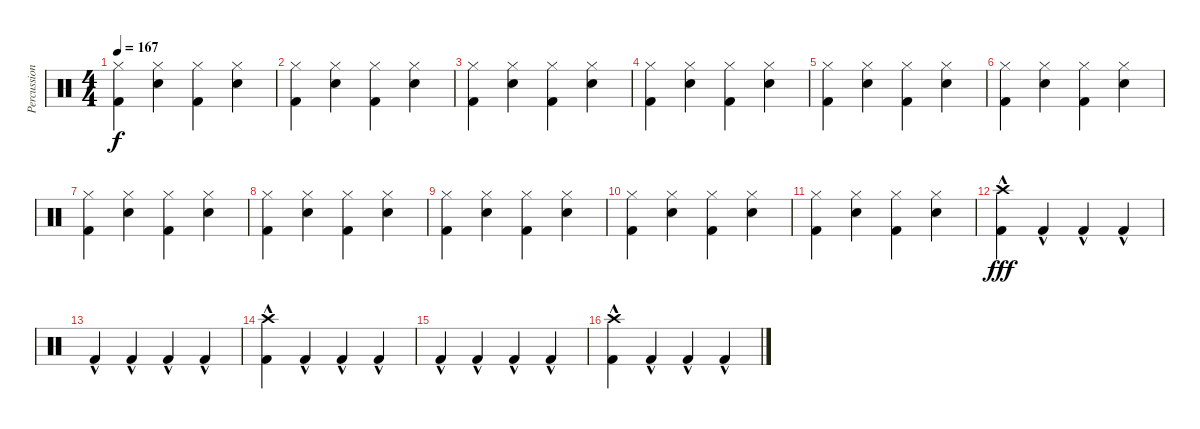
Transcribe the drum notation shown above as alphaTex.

\track ("Percussion" "Percussion") {instrument percussion}
\staff {score}
\articulation defaults
\ts (4 4)
\tempo 167
\clef neutral
\ks c
("Kick (hit) 2" "Hi-Hat (closed)").4{dy f} ("Hi-Hat (closed)" "Electric Snare (hit)").4 ("Kick (hit) 2" "Hi-Hat (closed)").4 ("Hi-Hat (closed)" "Electric Snare (hit)").4 |
("Kick (hit) 2" "Hi-Hat (closed)").4 ("Hi-Hat (closed)" "Electric Snare (hit)").4 ("Kick (hit) 2" "Hi-Hat (closed)").4 ("Hi-Hat (closed)" "Electric Snare (hit)").4 |
("Kick (hit) 2" "Hi-Hat (closed)").4 ("Hi-Hat (closed)" "Electric Snare (hit)").4 ("Kick (hit) 2" "Hi-Hat (closed)").4 ("Hi-Hat (closed)" "Electric Snare (hit)").4 |
("Kick (hit) 2" "Hi-Hat (closed)").4 ("Hi-Hat (closed)" "Electric Snare (hit)").4 ("Kick (hit) 2" "Hi-Hat (closed)").4 ("Hi-Hat (closed)" "Electric Snare (hit)").4 |
("Kick (hit) 2" "Hi-Hat (closed)").4 ("Hi-Hat (closed)" "Electric Snare (hit)").4 ("Kick (hit) 2" "Hi-Hat (closed)").4 ("Hi-Hat (closed)" "Electric Snare (hit)").4 |
("Kick (hit) 2" "Hi-Hat (closed)").4 ("Hi-Hat (closed)" "Electric Snare (hit)").4 ("Kick (hit) 2" "Hi-Hat (closed)").4 ("Hi-Hat (closed)" "Electric Snare (hit)").4 |
("Kick (hit) 2" "Hi-Hat (closed)").4 ("Hi-Hat (closed)" "Electric Snare (hit)").4 ("Kick (hit) 2" "Hi-Hat (closed)").4 ("Hi-Hat (closed)" "Electric Snare (hit)").4 |
("Kick (hit) 2" "Hi-Hat (closed)").4 ("Hi-Hat (closed)" "Electric Snare (hit)").4 ("Kick (hit) 2" "Hi-Hat (closed)").4 ("Hi-Hat (closed)" "Electric Snare (hit)").4 |
("Kick (hit) 2" "Hi-Hat (closed)").4 ("Hi-Hat (closed)" "Electric Snare (hit)").4 ("Kick (hit) 2" "Hi-Hat (closed)").4 ("Hi-Hat (closed)" "Electric Snare (hit)").4 |
("Kick (hit) 2" "Hi-Hat (closed)").4 ("Hi-Hat (closed)" "Electric Snare (hit)").4 ("Kick (hit) 2" "Hi-Hat (closed)").4 ("Hi-Hat (closed)" "Electric Snare (hit)").4 |
("Kick (hit) 2" "Hi-Hat (closed)").4 ("Hi-Hat (closed)" "Electric Snare (hit)").4 ("Kick (hit) 2" "Hi-Hat (closed)").4 ("Hi-Hat (closed)" "Electric Snare (hit)").4 |
("Kick (hit) 2"{hac} "Crash high (hit)"{hac}).4{dy fff} "Kick (hit) 2"{hac}.4 "Kick (hit) 2"{hac}.4 "Kick (hit) 2"{hac}.4 |
"Kick (hit) 2"{hac}.4 "Kick (hit) 2"{hac}.4 "Kick (hit) 2"{hac}.4 "Kick (hit) 2"{hac}.4 |
("Kick (hit) 2"{hac} "Crash high (hit)"{hac}).4 "Kick (hit) 2"{hac}.4 "Kick (hit) 2"{hac}.4 "Kick (hit) 2"{hac}.4 |
"Kick (hit) 2"{hac}.4 "Kick (hit) 2"{hac}.4 "Kick (hit) 2"{hac}.4 "Kick (hit) 2"{hac}.4 |
("Kick (hit) 2"{hac} "Crash high (hit)"{hac}).4 "Kick (hit) 2"{hac}.4 "Kick (hit) 2"{hac}.4 "Kick (hit) 2"{hac}.4
